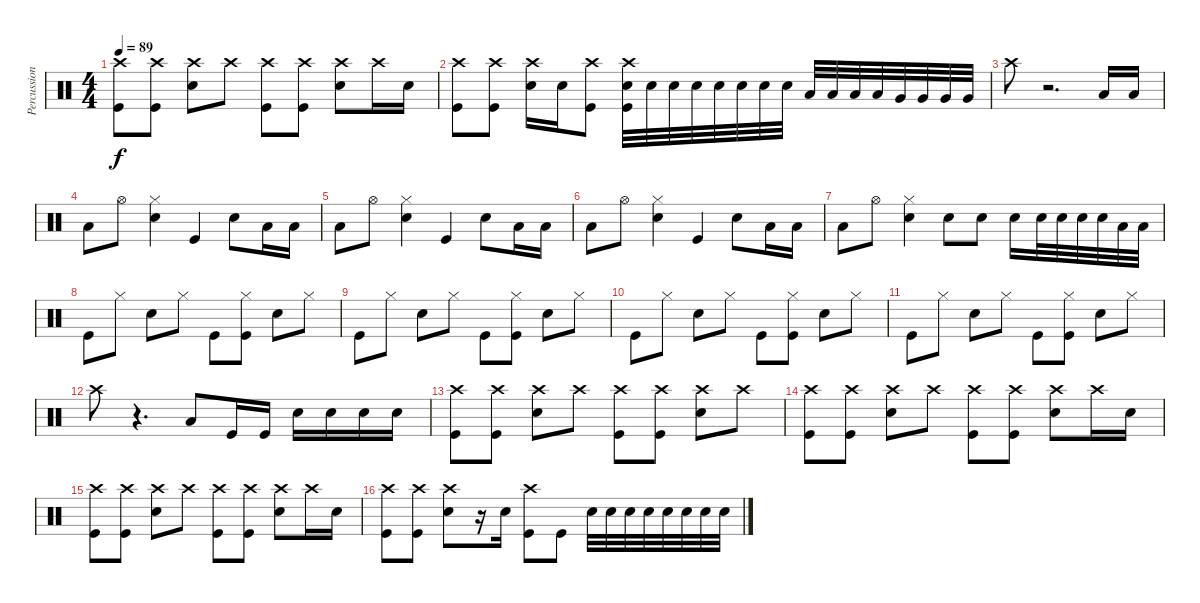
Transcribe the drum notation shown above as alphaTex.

\track ("Percussion" "Percussion") {instrument percussion}
\staff {score}
\articulation defaults
\ts (4 4)
\tempo 89
\clef neutral
\ks c
("Crash high (hit)" "Kick (hit)").8{dy f} ("Crash high (hit)" "Kick (hit)").8 ("Crash high (hit)" "Electric Snare (hit)").8 "Crash high (hit)".8 ("Crash high (hit)" "Kick (hit)").8 ("Crash high (hit)" "Kick (hit)").8 ("Crash high (hit)" "Electric Snare (hit)").8 "Crash high (hit)".16 "Electric Snare (hit)".16 |
("Crash high (hit)" "Kick (hit)").8 ("Crash high (hit)" "Kick (hit)").8 ("Crash high (hit)" "Electric Snare (hit)").16 "Electric Snare (hit)".16 ("Crash high (hit)" "Kick (hit)").8 ("Crash high (hit)" "Electric Snare (hit)" "Kick (hit)").32 "Electric Snare (hit)".32 "Electric Snare (hit)".32 "Electric Snare (hit)".32 "Electric Snare (hit)".32 "Electric Snare (hit)".32 "Electric Snare (hit)".32 "Electric Snare (hit)".32 "Low Tom (hit)".32 "Low Tom (hit)".32 "Low Tom (hit)".32 "Low Tom (hit)".32 "Very Low Tom (hit)".32 "Very Low Tom (hit)".32 "Very Low Tom (hit)".32 "Very Low Tom (hit)".32 |
"Crash high (hit)".8 r.2{d} "Low Floor Tom (hit)".16 "Low Floor Tom (hit)".16 |
"Low Floor Tom (hit)".8 "Hi-Hat (open)".8 ("Hi-Hat (closed)" "Electric Snare (hit)").4 "Kick (hit)".4 "Electric Snare (hit)".8 "Low Floor Tom (hit)".16 "Low Floor Tom (hit)".16 |
"Low Floor Tom (hit)".8 "Hi-Hat (open)".8 ("Hi-Hat (closed)" "Electric Snare (hit)").4 "Kick (hit)".4 "Electric Snare (hit)".8 "Low Floor Tom (hit)".16 "Low Floor Tom (hit)".16 |
"Low Floor Tom (hit)".8 "Hi-Hat (open)".8 ("Hi-Hat (closed)" "Electric Snare (hit)").4 "Kick (hit)".4 "Electric Snare (hit)".8 "Low Floor Tom (hit)".16 "Low Floor Tom (hit)".16 |
"Low Floor Tom (hit)".8 "Hi-Hat (open)".8 ("Hi-Hat (closed)" "Electric Snare (hit)").4 "Electric Snare (hit)".8 "Electric Snare (hit)".8 "Electric Snare (hit)".16 "Electric Snare (hit)".32 "Electric Snare (hit)".32 "Electric Snare (hit)".32 "Electric Snare (hit)".32 "Low Floor Tom (hit)".32 "Low Floor Tom (hit)".32 |
"Kick (hit)".8 "Hi-Hat (closed)".8 "Electric Snare (hit)".8 "Hi-Hat (closed)".8 "Kick (hit)".8 ("Hi-Hat (closed)" "Kick (hit)").8 "Electric Snare (hit)".8 "Hi-Hat (closed)".8 |
"Kick (hit)".8 "Hi-Hat (closed)".8 "Electric Snare (hit)".8 "Hi-Hat (closed)".8 "Kick (hit)".8 ("Hi-Hat (closed)" "Kick (hit)").8 "Electric Snare (hit)".8 "Hi-Hat (closed)".8 |
"Kick (hit)".8 "Hi-Hat (closed)".8 "Electric Snare (hit)".8 "Hi-Hat (closed)".8 "Kick (hit)".8 ("Hi-Hat (closed)" "Kick (hit)").8 "Electric Snare (hit)".8 "Hi-Hat (closed)".8 |
"Kick (hit)".8 "Hi-Hat (closed)".8 "Electric Snare (hit)".8 "Hi-Hat (closed)".8 "Kick (hit)".8 ("Hi-Hat (closed)" "Kick (hit)").8 "Electric Snare (hit)".8 "Hi-Hat (closed)".8 |
"Crash high (hit)".8 r.4{d} "Low Floor Tom (hit)".8 "Kick (hit)".16 "Kick (hit)".16 "Electric Snare (hit)".16 "Electric Snare (hit)".16 "Electric Snare (hit)".16 "Electric Snare (hit)".16 |
("Crash high (hit)" "Kick (hit)").8 ("Crash high (hit)" "Kick (hit)").8 ("Crash high (hit)" "Electric Snare (hit)").8 "Crash high (hit)".8 ("Crash high (hit)" "Kick (hit)").8 ("Crash high (hit)" "Kick (hit)").8 ("Crash high (hit)" "Electric Snare (hit)").8 "Crash high (hit)".8 |
("Crash high (hit)" "Kick (hit)").8 ("Crash high (hit)" "Kick (hit)").8 ("Crash high (hit)" "Electric Snare (hit)").8 "Crash high (hit)".8 ("Crash high (hit)" "Kick (hit)").8 ("Crash high (hit)" "Kick (hit)").8 ("Crash high (hit)" "Electric Snare (hit)").8 "Crash high (hit)".16 "Electric Snare (hit)".16 |
("Crash high (hit)" "Kick (hit)").8 ("Crash high (hit)" "Kick (hit)").8 ("Crash high (hit)" "Electric Snare (hit)").8 "Crash high (hit)".8 ("Crash high (hit)" "Kick (hit)").8 ("Crash high (hit)" "Kick (hit)").8 ("Crash high (hit)" "Electric Snare (hit)").8 "Crash high (hit)".16 "Electric Snare (hit)".16 |
("Crash high (hit)" "Kick (hit)").8 ("Crash high (hit)" "Kick (hit)").8 ("Crash high (hit)" "Electric Snare (hit)").8 r.16 "Electric Snare (hit)".16 ("Crash high (hit)" "Kick (hit)").8 "Kick (hit)".8 "Electric Snare (hit)".32 "Electric Snare (hit)".32 "Electric Snare (hit)".32 "Electric Snare (hit)".32 "Electric Snare (hit)".32 "Electric Snare (hit)".32 "Electric Snare (hit)".32 "Electric Snare (hit)".32
